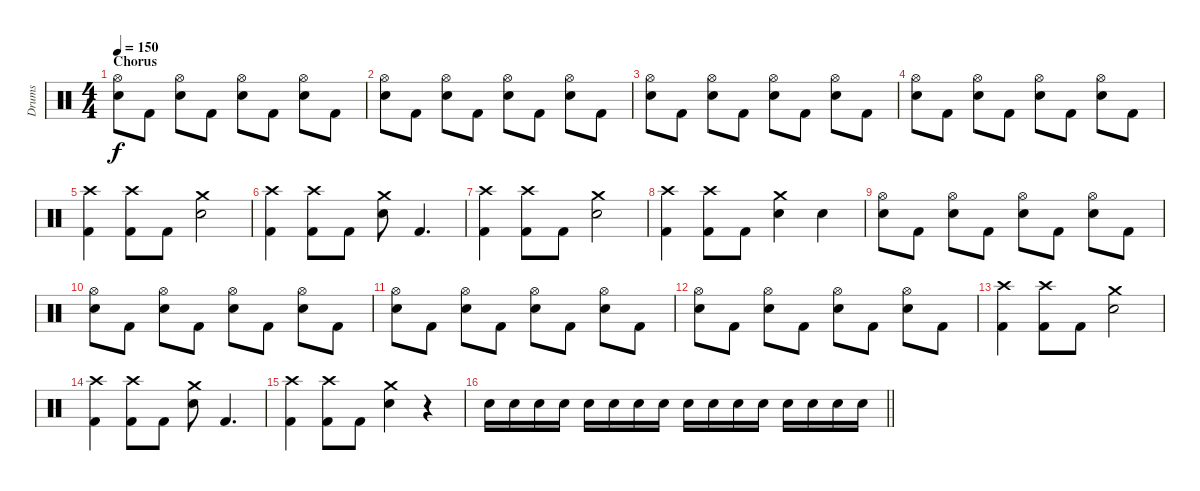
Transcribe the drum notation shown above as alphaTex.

\track ("Drums" "Drums") {instrument percussion}
\staff {score}
\articulation defaults
\ts (4 4)
\section ("" "Chorus")
\tempo 150
\clef neutral
\ks c
("Electric Snare (hit)" "Hi-Hat (open)").8{dy f} "Kick (hit) 2".8 ("Electric Snare (hit)" "Hi-Hat (open)").8 "Kick (hit) 2".8 ("Electric Snare (hit)" "Hi-Hat (open)").8 "Kick (hit) 2".8 ("Electric Snare (hit)" "Hi-Hat (open)").8 "Kick (hit) 2".8 |
("Electric Snare (hit)" "Hi-Hat (open)").8 "Kick (hit) 2".8 ("Electric Snare (hit)" "Hi-Hat (open)").8 "Kick (hit) 2".8 ("Electric Snare (hit)" "Hi-Hat (open)").8 "Kick (hit) 2".8 ("Electric Snare (hit)" "Hi-Hat (open)").8 "Kick (hit) 2".8 |
("Electric Snare (hit)" "Hi-Hat (open)").8 "Kick (hit) 2".8 ("Electric Snare (hit)" "Hi-Hat (open)").8 "Kick (hit) 2".8 ("Electric Snare (hit)" "Hi-Hat (open)").8 "Kick (hit) 2".8 ("Electric Snare (hit)" "Hi-Hat (open)").8 "Kick (hit) 2".8 |
("Electric Snare (hit)" "Hi-Hat (open)").8 "Kick (hit) 2".8 ("Electric Snare (hit)" "Hi-Hat (open)").8 "Kick (hit) 2".8 ("Electric Snare (hit)" "Hi-Hat (open)").8 "Kick (hit) 2".8 ("Electric Snare (hit)" "Hi-Hat (open)").8 "Kick (hit) 2".8 |
("Kick (hit) 2" "Crash high (hit)").4 ("Kick (hit) 2" "Crash high (hit)").8 "Kick (hit) 2".8 ("Electric Snare (hit)" "Crash medium (hit)").2 |
("Kick (hit) 2" "Crash high (hit)").4 ("Kick (hit) 2" "Crash high (hit)").8 "Kick (hit) 2".8 ("Electric Snare (hit)" "Crash medium (hit)").8 "Kick (hit) 2".4{d} |
("Kick (hit) 2" "Crash high (hit)").4 ("Kick (hit) 2" "Crash high (hit)").8 "Kick (hit) 2".8 ("Electric Snare (hit)" "Crash medium (hit)").2 |
("Kick (hit) 2" "Crash high (hit)").4 ("Kick (hit) 2" "Crash high (hit)").8 "Kick (hit) 2".8 ("Electric Snare (hit)" "Crash medium (hit)").4 "Electric Snare (hit)".4 |
("Electric Snare (hit)" "Hi-Hat (open)").8 "Kick (hit) 2".8 ("Electric Snare (hit)" "Hi-Hat (open)").8 "Kick (hit) 2".8 ("Electric Snare (hit)" "Hi-Hat (open)").8 "Kick (hit) 2".8 ("Electric Snare (hit)" "Hi-Hat (open)").8 "Kick (hit) 2".8 |
("Electric Snare (hit)" "Hi-Hat (open)").8 "Kick (hit) 2".8 ("Electric Snare (hit)" "Hi-Hat (open)").8 "Kick (hit) 2".8 ("Electric Snare (hit)" "Hi-Hat (open)").8 "Kick (hit) 2".8 ("Electric Snare (hit)" "Hi-Hat (open)").8 "Kick (hit) 2".8 |
("Electric Snare (hit)" "Hi-Hat (open)").8 "Kick (hit) 2".8 ("Electric Snare (hit)" "Hi-Hat (open)").8 "Kick (hit) 2".8 ("Electric Snare (hit)" "Hi-Hat (open)").8 "Kick (hit) 2".8 ("Electric Snare (hit)" "Hi-Hat (open)").8 "Kick (hit) 2".8 |
("Electric Snare (hit)" "Hi-Hat (open)").8 "Kick (hit) 2".8 ("Electric Snare (hit)" "Hi-Hat (open)").8 "Kick (hit) 2".8 ("Electric Snare (hit)" "Hi-Hat (open)").8 "Kick (hit) 2".8 ("Electric Snare (hit)" "Hi-Hat (open)").8 "Kick (hit) 2".8 |
("Kick (hit) 2" "Crash high (hit)").4 ("Kick (hit) 2" "Crash high (hit)").8 "Kick (hit) 2".8 ("Electric Snare (hit)" "Crash medium (hit)").2 |
("Kick (hit) 2" "Crash high (hit)").4 ("Kick (hit) 2" "Crash high (hit)").8 "Kick (hit) 2".8 ("Electric Snare (hit)" "Crash medium (hit)").8 "Kick (hit) 2".4{d} |
("Kick (hit) 2" "Crash high (hit)").4 ("Kick (hit) 2" "Crash high (hit)").8 "Kick (hit) 2".8 ("Electric Snare (hit)" "Crash medium (hit)").4 r.4{volume 4} |
\barLineRight lightlight "Electric Snare (hit)".16{volume 14} "Electric Snare (hit)".16 "Electric Snare (hit)".16 "Electric Snare (hit)".16 "Electric Snare (hit)".16 "Electric Snare (hit)".16 "Electric Snare (hit)".16 "Electric Snare (hit)".16 "Electric Snare (hit)".16 "Electric Snare (hit)".16 "Electric Snare (hit)".16 "Electric Snare (hit)".16 "Electric Snare (hit)".16 "Electric Snare (hit)".16 "Electric Snare (hit)".16 "Electric Snare (hit)".16
